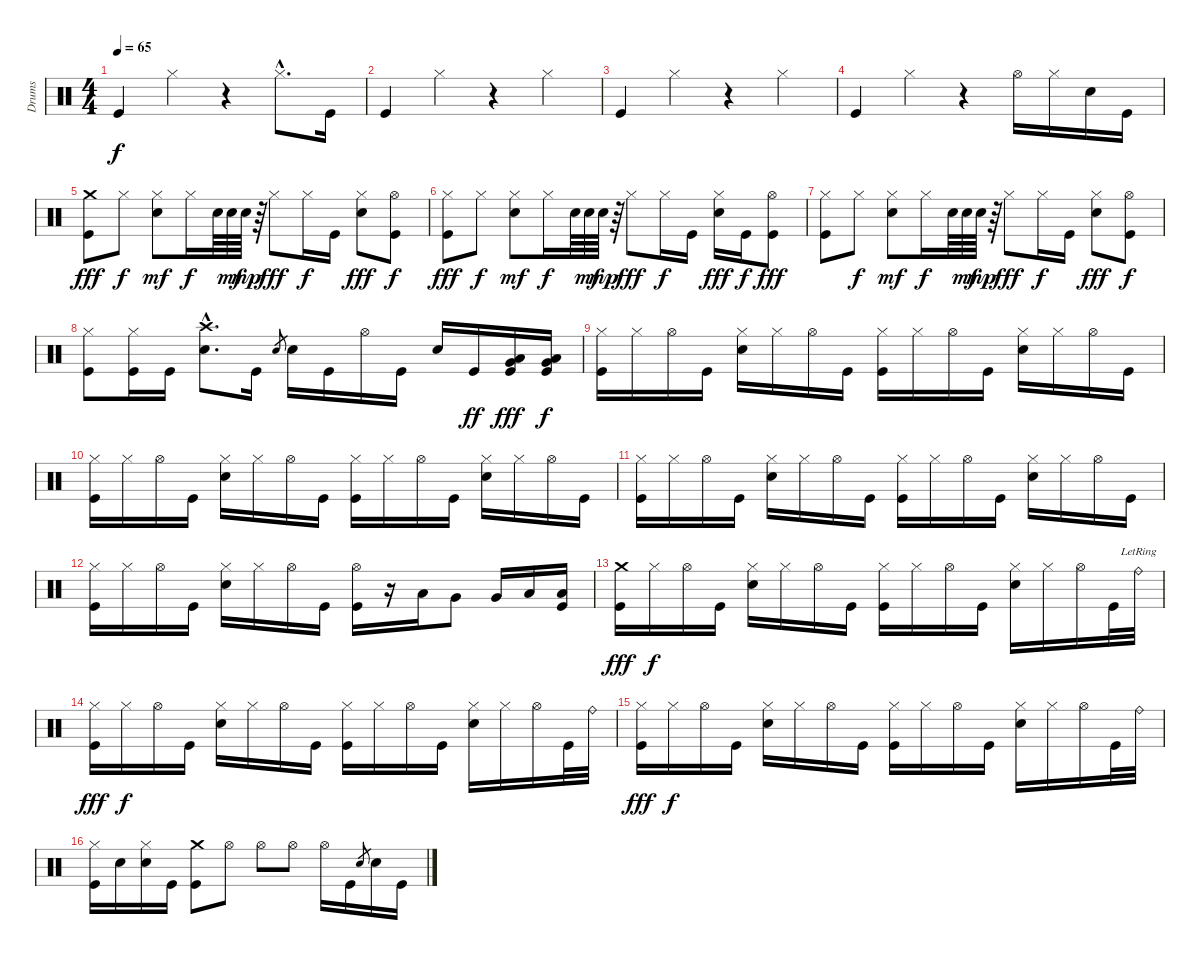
\track ("Drums" "Drums") {instrument percussion}
\staff {score}
\articulation defaults
\ts (4 4)
\tempo 65
\clef neutral
\ks c "Kick (hit)".4{dy f} "Hi-Hat (closed)".4
r.4 "Hi-Hat (closed)"{hac}.8{d} "Kick (hit)".16 |
"Kick (hit)".4 "Hi-Hat (closed)".4 r.4 "Hi-Hat (closed)".4 |
"Kick (hit)".4 "Hi-Hat (closed)".4 r.4 "Hi-Hat (closed)".4 |
"Kick (hit)".4 "Hi-Hat (closed)".4 r.4 "Hi-Hat (open)".16 "Hi-Hat (closed)".16 "Snare (hit) 2".16 "Kick (hit)".16 |
("Crash medium (hit)" "Kick (hit)").8{dy fff} "Hi-Hat (closed)".8{dy f} ("Hi-Hat (closed)" "Snare (hit) 2").8{dy mf} "Hi-Hat (closed)".16{dy f} "Snare (hit) 2".64 "Snare (hit) 2".64{dy mf} "Snare (hit) 2".64{dy mp} r.64 "Hi-Hat (closed)".8{dy fff} "Hi-Hat (closed)".16{dy f} "Kick (hit)".16 ("Hi-Hat (closed)" "Snare (hit) 2").8{dy fff} ("Hi-Hat (open)" "Kick (hit)").8{dy f} |
("Hi-Hat (closed)" "Kick (hit)").8{dy fff} "Hi-Hat (closed)".8{dy f} ("Hi-Hat (closed)" "Snare (hit) 2").8{dy mf} "Hi-Hat (closed)".16{dy f} "Snare (hit) 2".64 "Snare (hit) 2".64{dy mf} "Snare (hit) 2".64{dy mp} r.64 "Hi-Hat (closed)".8{dy fff} "Hi-Hat (closed)".16{dy f} "Kick (hit)".16 ("Hi-Hat (closed)" "Snare (hit) 2").16{dy fff} "Kick (hit)".16{dy f} ("Hi-Hat (open)" "Kick (hit)").8{dy fff} |
("Hi-Hat (closed)" "Kick (hit)").8 "Hi-Hat (closed)".8{dy f} ("Hi-Hat (closed)" "Snare (hit) 2").8{dy mf} "Hi-Hat (closed)".16{dy f} "Snare (hit) 2".64 "Snare (hit) 2".64{dy mf} "Snare (hit) 2".64{dy mp} r.64 "Hi-Hat (closed)".8{dy fff} "Hi-Hat (closed)".16{dy f} "Kick (hit)".16 ("Hi-Hat (closed)" "Snare (hit) 2").8{dy fff} ("Hi-Hat (open)" "Kick (hit)").8{dy f} |
("Hi-Hat (closed)" "Kick (hit)").8 ("Hi-Hat (closed)" "Kick (hit)").16 "Kick (hit)".16 ("Crash high (hit)"{hac} "Snare (hit) 2"{hac}).8{d} "Kick (hit)".16 "Snare (hit) 2".8{gr} "Snare (hit) 2".16 "Kick (hit)".16 "Hi-Hat (open)".16 "Kick (hit)".16 "Snare (hit) 2".16 "Kick (hit)".16{dy ff} ("Very Low Tom (hit)" "Low Floor Tom (hit)" "Kick (hit)").16{dy fff} ("Very Low Tom (hit)" "Low Floor Tom (hit)" "Kick (hit)").16{dy f} |
("Hi-Hat (closed)" "Kick (hit)").16 "Hi-Hat (closed)".16 "Hi-Hat (open)".16 "Kick (hit)".16 ("Hi-Hat (closed)" "Snare (hit) 2").16 "Hi-Hat (closed)".16 "Hi-Hat (open)".16 "Kick (hit)".16 ("Hi-Hat (closed)" "Kick (hit)").16 "Hi-Hat (closed)".16 "Hi-Hat (open)".16 "Kick (hit)".16 ("Hi-Hat (closed)" "Snare (hit) 2").16 "Hi-Hat (closed)".16 "Hi-Hat (open)".16 "Kick (hit)".16 |
("Hi-Hat (closed)" "Kick (hit)").16 "Hi-Hat (closed)".16 "Hi-Hat (open)".16 "Kick (hit)".16 ("Hi-Hat (closed)" "Snare (hit) 2").16 "Hi-Hat (closed)".16 "Hi-Hat (open)".16 "Kick (hit)".16 ("Hi-Hat (closed)" "Kick (hit)").16 "Hi-Hat (closed)".16 "Hi-Hat (open)".16 "Kick (hit)".16 ("Hi-Hat (closed)" "Snare (hit) 2").16 "Hi-Hat (closed)".16 "Hi-Hat (open)".16 "Kick (hit)".16 |
("Hi-Hat (closed)" "Kick (hit)").16 "Hi-Hat (closed)".16 "Hi-Hat (open)".16 "Kick (hit)".16 ("Hi-Hat (closed)" "Snare (hit) 2").16 "Hi-Hat (closed)".16 "Hi-Hat (open)".16 "Kick (hit)".16 ("Hi-Hat (closed)" "Kick (hit)").16 "Hi-Hat (closed)".16 "Hi-Hat (open)".16 "Kick (hit)".16 ("Hi-Hat (closed)" "Snare (hit) 2").16 "Hi-Hat (closed)".16 "Hi-Hat (open)".16 "Kick (hit)".16 |
("Hi-Hat (closed)" "Kick (hit)").16 "Hi-Hat (closed)".16 "Hi-Hat (open)".16 "Kick (hit)".16 ("Hi-Hat (closed)" "Snare (hit) 2").16 "Hi-Hat (closed)".16 "Hi-Hat (open)".16 "Kick (hit)".16 ("Hi-Hat (open)" "Kick (hit)").16 r.16 "Low Tom (hit)".16 "Very Low Tom (hit)".8 "Very Low Tom (hit)".16 "Low Floor Tom (hit)".16 ("Low Floor Tom (hit)" "Kick (hit)").16 |
("Crash medium (hit)" "Kick (hit)").16{dy fff} "Hi-Hat (closed)".16{dy f} "Hi-Hat (open)".16 "Kick (hit)".16 ("Hi-Hat (closed)" "Snare (hit) 2").16 "Hi-Hat (closed)".16 "Hi-Hat (open)".16 "Kick (hit)".16 ("Hi-Hat (closed)" "Kick (hit)").16 "Hi-Hat (closed)".16 "Hi-Hat (open)".16 "Kick (hit)".16 ("Hi-Hat (closed)" "Snare (hit) 2").16 "Hi-Hat (closed)".16 "Hi-Hat (open)".16 "Kick (hit)".32 "Ride (bell)"{lr}.32 |
("Hi-Hat (closed)" "Kick (hit)").16{dy fff} "Hi-Hat (closed)".16{dy f} "Hi-Hat (open)".16 "Kick (hit)".16 ("Hi-Hat (closed)" "Snare (hit) 2").16 "Hi-Hat (closed)".16 "Hi-Hat (open)".16 "Kick (hit)".16 ("Hi-Hat (closed)" "Kick (hit)").16 "Hi-Hat (closed)".16 "Hi-Hat (open)".16 "Kick (hit)".16 ("Hi-Hat (closed)" "Snare (hit) 2").16 "Hi-Hat (closed)".16 "Hi-Hat (open)".16 "Kick (hit)".32 "Ride (bell)".32 |
("Hi-Hat (closed)" "Kick (hit)").16{dy fff} "Hi-Hat (closed)".16{dy f} "Hi-Hat (open)".16 "Kick (hit)".16 ("Hi-Hat (closed)" "Snare (hit) 2").16 "Hi-Hat (closed)".16 "Hi-Hat (open)".16 "Kick (hit)".16 ("Hi-Hat (closed)" "Kick (hit)").16 "Hi-Hat (closed)".16 "Hi-Hat (open)".16 "Kick (hit)".16 ("Hi-Hat (closed)" "Snare (hit) 2").16 "Hi-Hat (closed)".16 "Hi-Hat (open)".16 "Kick (hit)".32 "Ride (bell)".32 |
("Hi-Hat (closed)" "Kick (hit)").16 "Snare (hit) 2".16 ("Hi-Hat (closed)" "Snare (hit) 2").16 "Kick (hit)".16 ("Crash medium (hit)" "Kick (hit)").8 "Hi-Hat (open)".8 "Hi-Hat (open)".8 "Hi-Hat (open)".8 "Hi-Hat (open)".16 "Kick (hit)".16 "Snare (hit) 2".8{gr} "Snare (hit) 2".16 "Kick (hit)".16
